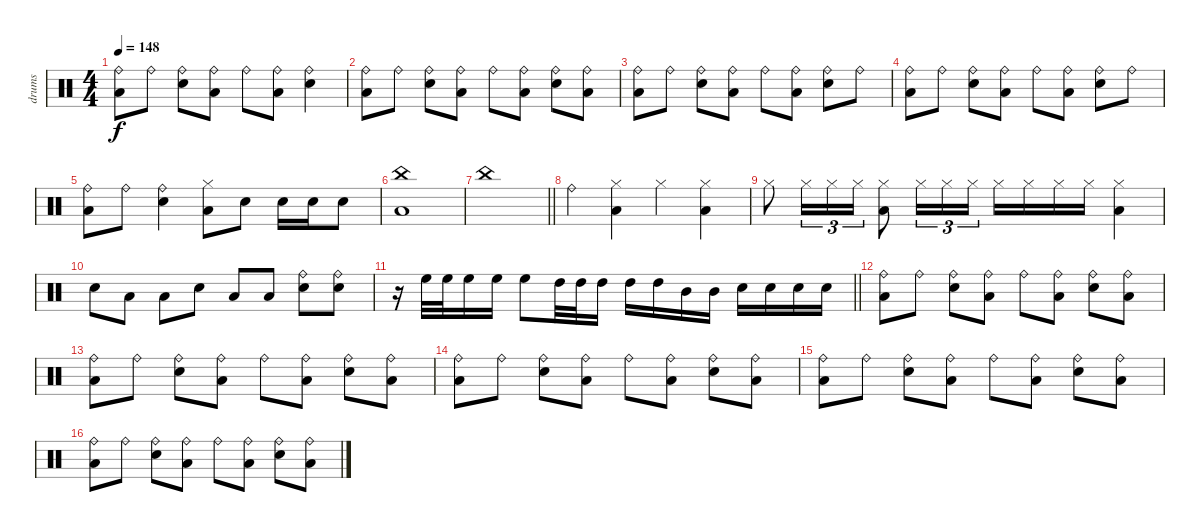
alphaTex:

\track ("drums" "drums") {instrument percussion}
\staff {score}
\articulation defaults
\ts (4 4)
\tempo 148
\clef neutral
\ks c
("Ride (bell)" "Low Floor Tom (hit)").8{dy f} "Ride (bell)".8 ("Ride (bell)" "Electric Snare (hit)").8 ("Ride (bell)" "Low Floor Tom (hit)").8 "Ride (bell)".8 ("Ride (bell)" "Low Floor Tom (hit)").8 ("Ride (bell)" "Electric Snare (hit)").4 |
("Ride (bell)" "Low Floor Tom (hit)").8 "Ride (bell)".8 ("Ride (bell)" "Electric Snare (hit)").8 ("Ride (bell)" "Low Floor Tom (hit)").8 "Ride (bell)".8 ("Ride (bell)" "Low Floor Tom (hit)").8 ("Ride (bell)" "Electric Snare (hit)").8 ("Ride (bell)" "Low Floor Tom (hit)").8 |
("Ride (bell)" "Low Floor Tom (hit)").8 "Ride (bell)".8 ("Ride (bell)" "Electric Snare (hit)").8 ("Ride (bell)" "Low Floor Tom (hit)").8 "Ride (bell)".8 ("Ride (bell)" "Low Floor Tom (hit)").8 ("Ride (bell)" "Electric Snare (hit)").8 "Ride (bell)".8 |
("Ride (bell)" "Low Floor Tom (hit)").8 "Ride (bell)".8 ("Ride (bell)" "Electric Snare (hit)").8 ("Ride (bell)" "Low Floor Tom (hit)").8 "Ride (bell)".8 ("Ride (bell)" "Low Floor Tom (hit)").8 ("Ride (bell)" "Electric Snare (hit)").8 "Ride (bell)".8 |
("Ride (bell)" "Low Floor Tom (hit)").8 "Ride (bell)".8 ("Ride (bell)" "Electric Snare (hit)").4 ("Hi-Hat (closed)" "Low Floor Tom (hit)").8 "Electric Snare (hit)".8 "Electric Snare (hit)".16 "Electric Snare (hit)".16 "Electric Snare (hit)".8 |
("China (hit)" "Low Floor Tom (hit)").1 |
\barLineRight lightlight "China (hit)".1
|
"Ride (bell)".4 ("Hi-Hat (closed)" "Low Floor Tom (hit)").4 "Hi-Hat (closed)".4 ("Hi-Hat (closed)" "Low Floor Tom (hit)").4 |
"Hi-Hat (closed)".8 "Hi-Hat (closed)".16{tu (3 2)} "Hi-Hat (closed)".16{tu (3 2)} "Hi-Hat (closed)".16{tu (3 2)} ("Hi-Hat (closed)" "Low Floor Tom (hit)").8 "Hi-Hat (closed)".16{tu (3 2)} "Hi-Hat (closed)".16{tu (3 2)} "Hi-Hat (closed)".16{tu (3 2)} "Hi-Hat (closed)".16 "Hi-Hat (closed)".16 "Hi-Hat (closed)".16 "Hi-Hat (closed)".16 ("Hi-Hat (closed)" "Low Floor Tom (hit)").4 |
"Electric Snare (hit)".8 "Low Tom (hit)".8 "Low Tom (hit)".8 "Electric Snare (hit)".8 "Low Tom (hit)".8 "Low Tom (hit)".8 ("Ride (bell)" "Electric Snare (hit)").8 ("Ride (bell)" "Electric Snare (hit)").8 |
\barLineRight lightlight
r.16 "High Floor Tom (hit)".32 "High Floor Tom (hit)".32 "High Floor Tom (hit)".16 "High Floor Tom (hit)".16 "High Floor Tom (hit)".8 "High Tom (hit)".32 "High Tom (hit)".32 "High Tom (hit)".16 "High Tom (hit)".16 "High Tom (hit)".16 "Mid Tom (hit)".16 "Mid Tom (hit)".16 "Electric Snare (hit)".16 "Electric Snare (hit)".16 "Snare (hit) 2".16 "Snare (hit) 2".16 |
("Ride (bell)" "Low Floor Tom (hit)").8 "Ride (bell)".8 ("Ride (bell)" "Electric Snare (hit)").8 ("Ride (bell)" "Low Floor Tom (hit)").8 "Ride (bell)".8 ("Ride (bell)" "Low Floor Tom (hit)").8 ("Ride (bell)" "Electric Snare (hit)").8 ("Ride (bell)" "Low Floor Tom (hit)").8 |
("Ride (bell)" "Low Floor Tom (hit)").8 "Ride (bell)".8 ("Ride (bell)" "Electric Snare (hit)").8 ("Ride (bell)" "Low Floor Tom (hit)").8 "Ride (bell)".8 ("Ride (bell)" "Low Floor Tom (hit)").8 ("Ride (bell)" "Electric Snare (hit)").8 ("Ride (bell)" "Low Floor Tom (hit)").8 |
("Ride (bell)" "Low Floor Tom (hit)").8 "Ride (bell)".8 ("Ride (bell)" "Electric Snare (hit)").8 ("Ride (bell)" "Low Floor Tom (hit)").8 "Ride (bell)".8 ("Ride (bell)" "Low Floor Tom (hit)").8 ("Ride (bell)" "Electric Snare (hit)").8 ("Ride (bell)" "Low Floor Tom (hit)").8 |
("Ride (bell)" "Low Floor Tom (hit)").8 "Ride (bell)".8 ("Ride (bell)" "Electric Snare (hit)").8 ("Ride (bell)" "Low Floor Tom (hit)").8 "Ride (bell)".8 ("Ride (bell)" "Low Floor Tom (hit)").8 ("Ride (bell)" "Electric Snare (hit)").8 ("Ride (bell)" "Low Floor Tom (hit)").8 |
("Ride (bell)" "Low Floor Tom (hit)").8 "Ride (bell)".8 ("Ride (bell)" "Electric Snare (hit)").8 ("Ride (bell)" "Low Floor Tom (hit)").8 "Ride (bell)".8 ("Ride (bell)" "Low Floor Tom (hit)").8 ("Ride (bell)" "Electric Snare (hit)").8 ("Ride (bell)" "Low Floor Tom (hit)").8
